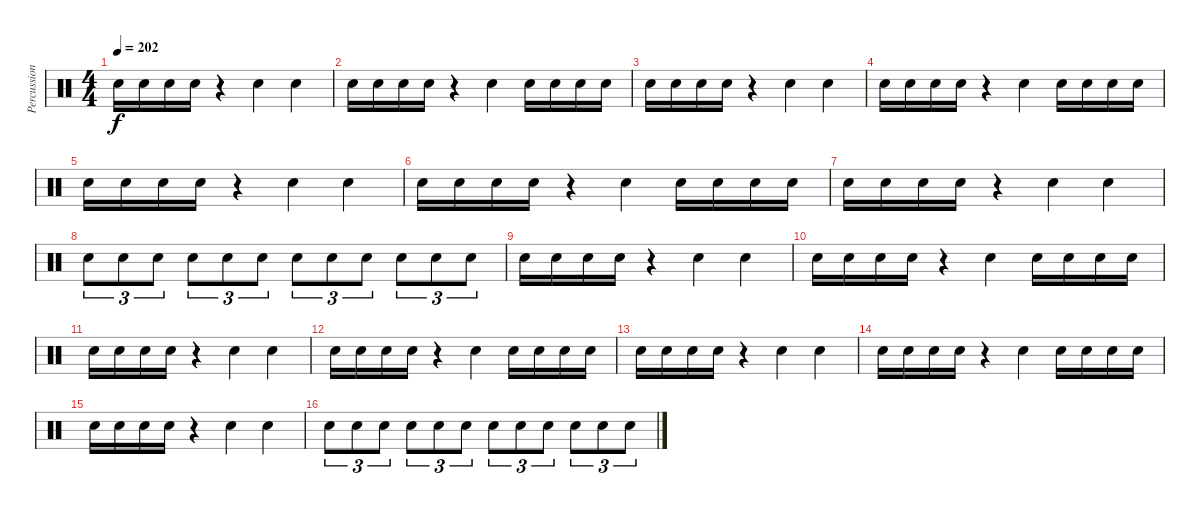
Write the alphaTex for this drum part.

\track ("Percussion" "Percussion") {instrument percussion}
\staff {score}
\articulation defaults
\ts (4 4)
\tempo 202
\clef neutral
\ks c "Snare (hit) 2".16{dy f} "Snare (hit) 2".16 "Snare (hit) 2".16 "Snare (hit) 2".16
r.4 "Snare (hit) 2".4 "Snare (hit) 2".4 |
"Snare (hit) 2".16 "Snare (hit) 2".16 "Snare (hit) 2".16 "Snare (hit) 2".16 r.4 "Snare (hit) 2".4 "Snare (hit) 2".16 "Snare (hit) 2".16 "Snare (hit) 2".16 "Snare (hit) 2".16 |
"Snare (hit) 2".16 "Snare (hit) 2".16 "Snare (hit) 2".16 "Snare (hit) 2".16 r.4 "Snare (hit) 2".4 "Snare (hit) 2".4 |
"Snare (hit) 2".16 "Snare (hit) 2".16 "Snare (hit) 2".16 "Snare (hit) 2".16 r.4 "Snare (hit) 2".4 "Snare (hit) 2".16 "Snare (hit) 2".16 "Snare (hit) 2".16 "Snare (hit) 2".16 |
"Snare (hit) 2".16 "Snare (hit) 2".16 "Snare (hit) 2".16 "Snare (hit) 2".16 r.4 "Snare (hit) 2".4 "Snare (hit) 2".4 |
"Snare (hit) 2".16 "Snare (hit) 2".16 "Snare (hit) 2".16 "Snare (hit) 2".16 r.4 "Snare (hit) 2".4 "Snare (hit) 2".16 "Snare (hit) 2".16 "Snare (hit) 2".16 "Snare (hit) 2".16 |
"Snare (hit) 2".16 "Snare (hit) 2".16 "Snare (hit) 2".16 "Snare (hit) 2".16 r.4 "Snare (hit) 2".4 "Snare (hit) 2".4 |
"Snare (hit) 2".8{tu (3 2)} "Snare (hit) 2".8{tu (3 2)} "Snare (hit) 2".8{tu (3 2)} "Snare (hit) 2".8{tu (3 2)} "Snare (hit) 2".8{tu (3 2)} "Snare (hit) 2".8{tu (3 2)} "Snare (hit) 2".8{tu (3 2)} "Snare (hit) 2".8{tu (3 2)} "Snare (hit) 2".8{tu (3 2)} "Snare (hit) 2".8{tu (3 2)} "Snare (hit) 2".8{tu (3 2)} "Snare (hit) 2".8{tu (3 2)} |
"Snare (hit) 2".16 "Snare (hit) 2".16 "Snare (hit) 2".16 "Snare (hit) 2".16 r.4 "Snare (hit) 2".4 "Snare (hit) 2".4 |
"Snare (hit) 2".16 "Snare (hit) 2".16 "Snare (hit) 2".16 "Snare (hit) 2".16 r.4 "Snare (hit) 2".4 "Snare (hit) 2".16 "Snare (hit) 2".16 "Snare (hit) 2".16 "Snare (hit) 2".16 |
"Snare (hit) 2".16 "Snare (hit) 2".16 "Snare (hit) 2".16 "Snare (hit) 2".16 r.4 "Snare (hit) 2".4 "Snare (hit) 2".4 |
"Snare (hit) 2".16 "Snare (hit) 2".16 "Snare (hit) 2".16 "Snare (hit) 2".16 r.4 "Snare (hit) 2".4 "Snare (hit) 2".16 "Snare (hit) 2".16 "Snare (hit) 2".16 "Snare (hit) 2".16 |
"Snare (hit) 2".16 "Snare (hit) 2".16 "Snare (hit) 2".16 "Snare (hit) 2".16 r.4 "Snare (hit) 2".4 "Snare (hit) 2".4 |
"Snare (hit) 2".16 "Snare (hit) 2".16 "Snare (hit) 2".16 "Snare (hit) 2".16 r.4 "Snare (hit) 2".4 "Snare (hit) 2".16 "Snare (hit) 2".16 "Snare (hit) 2".16 "Snare (hit) 2".16 |
"Snare (hit) 2".16 "Snare (hit) 2".16 "Snare (hit) 2".16 "Snare (hit) 2".16 r.4 "Snare (hit) 2".4 "Snare (hit) 2".4 |
"Snare (hit) 2".8{tu (3 2)} "Snare (hit) 2".8{tu (3 2)} "Snare (hit) 2".8{tu (3 2)} "Snare (hit) 2".8{tu (3 2)} "Snare (hit) 2".8{tu (3 2)} "Snare (hit) 2".8{tu (3 2)} "Snare (hit) 2".8{tu (3 2)} "Snare (hit) 2".8{tu (3 2)} "Snare (hit) 2".8{tu (3 2)} "Snare (hit) 2".8{tu (3 2)} "Snare (hit) 2".8{tu (3 2)} "Snare (hit) 2".8{tu (3 2)}
